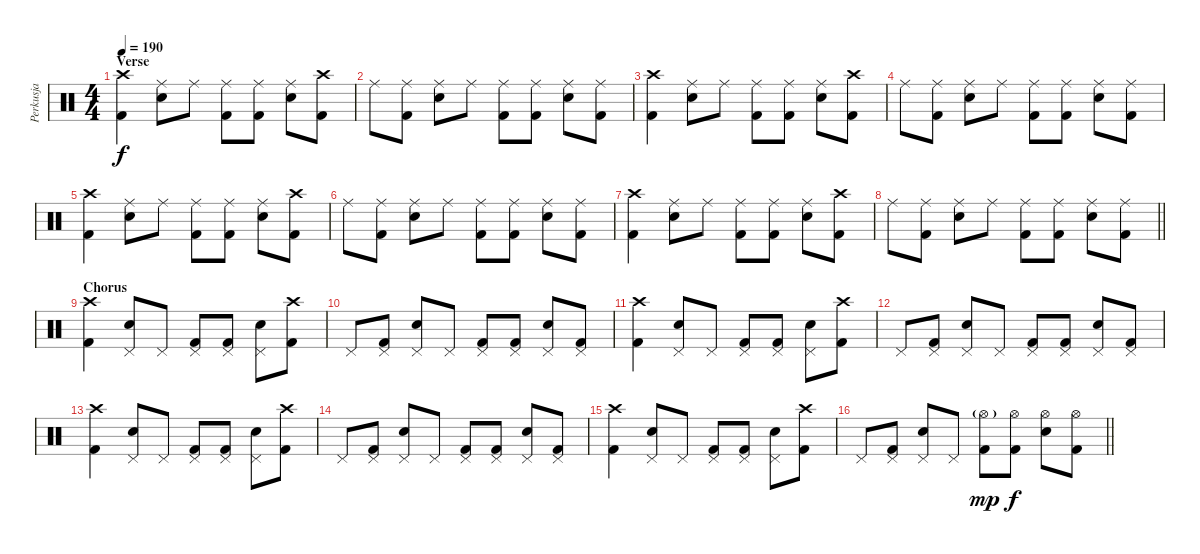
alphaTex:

\track ("Perkusja" "Perkusja") {instrument percussion}
\staff {score}
\articulation defaults
\ts (4 4)
\section ("" "Verse")
\tempo 190
\clef neutral
\ks c
("Crash high (hit)" "Kick (hit) 2").4{dy f} ("Ride (middle)" "Electric Snare (hit)").8 "Ride (middle)".8 ("Ride (middle)" "Kick (hit) 2").8 ("Ride (middle)" "Kick (hit) 2").8 ("Ride (middle)" "Electric Snare (hit)").8 ("Crash high (hit)" "Kick (hit) 2").8 |
"Ride (middle)".8 ("Ride (middle)" "Kick (hit) 2").8 ("Ride (middle)" "Electric Snare (hit)").8 "Ride (middle)".8 ("Ride (middle)" "Kick (hit) 2").8 ("Ride (middle)" "Kick (hit) 2").8 ("Ride (middle)" "Electric Snare (hit)").8 ("Ride (middle)" "Kick (hit) 2").8 |
("Crash high (hit)" "Kick (hit) 2").4 ("Ride (middle)" "Electric Snare (hit)").8 "Ride (middle)".8 ("Ride (middle)" "Kick (hit) 2").8 ("Ride (middle)" "Kick (hit) 2").8 ("Ride (middle)" "Electric Snare (hit)").8 ("Crash high (hit)" "Kick (hit) 2").8 |
"Ride (middle)".8 ("Ride (middle)" "Kick (hit) 2").8 ("Ride (middle)" "Electric Snare (hit)").8 "Ride (middle)".8 ("Ride (middle)" "Kick (hit) 2").8 ("Ride (middle)" "Kick (hit) 2").8 ("Ride (middle)" "Electric Snare (hit)").8 ("Ride (middle)" "Kick (hit) 2").8 |
("Crash high (hit)" "Kick (hit) 2").4 ("Ride (middle)" "Electric Snare (hit)").8 "Ride (middle)".8 ("Ride (middle)" "Kick (hit) 2").8 ("Ride (middle)" "Kick (hit) 2").8 ("Ride (middle)" "Electric Snare (hit)").8 ("Crash high (hit)" "Kick (hit) 2").8 |
"Ride (middle)".8 ("Ride (middle)" "Kick (hit) 2").8 ("Ride (middle)" "Electric Snare (hit)").8 "Ride (middle)".8 ("Ride (middle)" "Kick (hit) 2").8 ("Ride (middle)" "Kick (hit) 2").8 ("Ride (middle)" "Electric Snare (hit)").8 ("Ride (middle)" "Kick (hit) 2").8 |
("Crash high (hit)" "Kick (hit) 2").4 ("Ride (middle)" "Electric Snare (hit)").8 "Ride (middle)".8 ("Ride (middle)" "Kick (hit) 2").8 ("Ride (middle)" "Kick (hit) 2").8 ("Ride (middle)" "Electric Snare (hit)").8 ("Crash high (hit)" "Kick (hit) 2").8 |
\barLineRight lightlight "Ride (middle)".8
("Ride (middle)" "Kick (hit) 2").8 ("Ride (middle)" "Electric Snare (hit)").8 "Ride (middle)".8 ("Ride (middle)" "Kick (hit) 2").8 ("Ride (middle)" "Kick (hit) 2").8 ("Ride (middle)" "Electric Snare (hit)").8 ("Ride (middle)" "Kick (hit) 2").8 |
\section ("" "Chorus")
("Crash high (hit)" "Kick (hit) 2").4 ("Pedal Hi-Hat (hit)" "Electric Snare (hit)").8 "Pedal Hi-Hat (hit)".8 ("Pedal Hi-Hat (hit)" "Kick (hit) 2").8 ("Pedal Hi-Hat (hit)" "Kick (hit) 2").8 ("Pedal Hi-Hat (hit)" "Electric Snare (hit)").8 ("Crash high (hit)" "Kick (hit) 2").8 |
"Pedal Hi-Hat (hit)".8 ("Pedal Hi-Hat (hit)" "Kick (hit) 2").8 ("Pedal Hi-Hat (hit)" "Electric Snare (hit)").8 "Pedal Hi-Hat (hit)".8 ("Pedal Hi-Hat (hit)" "Kick (hit) 2").8 ("Pedal Hi-Hat (hit)" "Kick (hit) 2").8 ("Pedal Hi-Hat (hit)" "Electric Snare (hit)").8 ("Pedal Hi-Hat (hit)" "Kick (hit) 2").8 |
("Crash high (hit)" "Kick (hit) 2").4 ("Pedal Hi-Hat (hit)" "Electric Snare (hit)").8 "Pedal Hi-Hat (hit)".8 ("Pedal Hi-Hat (hit)" "Kick (hit) 2").8 ("Pedal Hi-Hat (hit)" "Kick (hit) 2").8 ("Pedal Hi-Hat (hit)" "Electric Snare (hit)").8 ("Crash high (hit)" "Kick (hit) 2").8 |
"Pedal Hi-Hat (hit)".8 ("Pedal Hi-Hat (hit)" "Kick (hit) 2").8 ("Pedal Hi-Hat (hit)" "Electric Snare (hit)").8 "Pedal Hi-Hat (hit)".8 ("Pedal Hi-Hat (hit)" "Kick (hit) 2").8 ("Pedal Hi-Hat (hit)" "Kick (hit) 2").8 ("Pedal Hi-Hat (hit)" "Electric Snare (hit)").8 ("Pedal Hi-Hat (hit)" "Kick (hit) 2").8 |
("Crash high (hit)" "Kick (hit) 2").4 ("Pedal Hi-Hat (hit)" "Electric Snare (hit)").8 "Pedal Hi-Hat (hit)".8 ("Pedal Hi-Hat (hit)" "Kick (hit) 2").8 ("Pedal Hi-Hat (hit)" "Kick (hit) 2").8 ("Pedal Hi-Hat (hit)" "Electric Snare (hit)").8 ("Crash high (hit)" "Kick (hit) 2").8 |
"Pedal Hi-Hat (hit)".8 ("Pedal Hi-Hat (hit)" "Kick (hit) 2").8 ("Pedal Hi-Hat (hit)" "Electric Snare (hit)").8 "Pedal Hi-Hat (hit)".8 ("Pedal Hi-Hat (hit)" "Kick (hit) 2").8 ("Pedal Hi-Hat (hit)" "Kick (hit) 2").8 ("Pedal Hi-Hat (hit)" "Electric Snare (hit)").8 ("Pedal Hi-Hat (hit)" "Kick (hit) 2").8 |
("Crash high (hit)" "Kick (hit) 2").4 ("Pedal Hi-Hat (hit)" "Electric Snare (hit)").8 "Pedal Hi-Hat (hit)".8 ("Pedal Hi-Hat (hit)" "Kick (hit) 2").8 ("Pedal Hi-Hat (hit)" "Kick (hit) 2").8 ("Pedal Hi-Hat (hit)" "Electric Snare (hit)").8 ("Crash high (hit)" "Kick (hit) 2").8 |
\barLineRight lightlight "Pedal Hi-Hat (hit)".8
("Pedal Hi-Hat (hit)" "Kick (hit) 2").8 ("Pedal Hi-Hat (hit)" "Electric Snare (hit)").8 "Pedal Hi-Hat (hit)".8 ("Hi-Hat (open)"{g} "Kick (hit) 2").8{dy mp} ("Hi-Hat (open)" "Kick (hit) 2").8{dy f} ("Hi-Hat (open)" "Electric Snare (hit)").8 ("Hi-Hat (open)" "Kick (hit) 2").8
